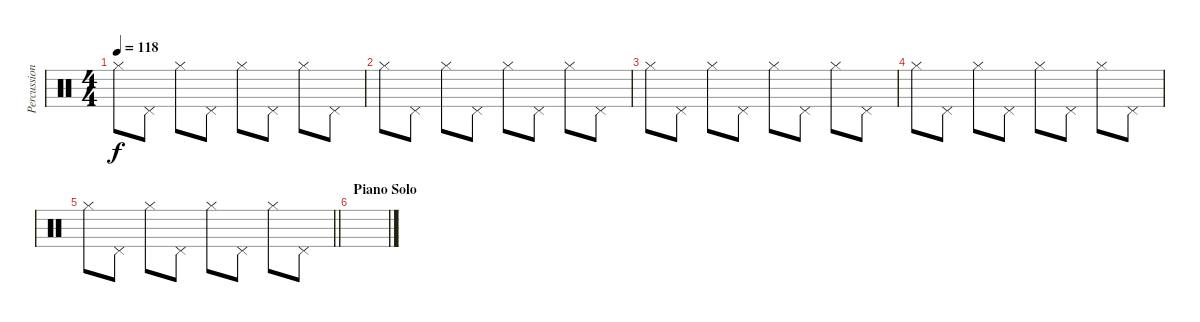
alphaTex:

\track ("Percussion (RSE)" "Percussion") {instrument percussion}
\staff {score}
\articulation defaults
\ts (4 4)
\tempo 118
\clef neutral
\ks c "Hi-Hat (closed)".8{dy f} "Pedal Hi-Hat (hit)".8 "Hi-Hat (closed)".8 "Pedal Hi-Hat (hit)".8 "Hi-Hat (closed)".8 "Pedal Hi-Hat (hit)".8 "Hi-Hat (closed)".8 "Pedal Hi-Hat (hit)".8
|
"Hi-Hat (closed)".8 "Pedal Hi-Hat (hit)".8 "Hi-Hat (closed)".8 "Pedal Hi-Hat (hit)".8 "Hi-Hat (closed)".8 "Pedal Hi-Hat (hit)".8 "Hi-Hat (closed)".8 "Pedal Hi-Hat (hit)".8 |
"Hi-Hat (closed)".8 "Pedal Hi-Hat (hit)".8 "Hi-Hat (closed)".8 "Pedal Hi-Hat (hit)".8 "Hi-Hat (closed)".8 "Pedal Hi-Hat (hit)".8 "Hi-Hat (closed)".8 "Pedal Hi-Hat (hit)".8 |
"Hi-Hat (closed)".8 "Pedal Hi-Hat (hit)".8 "Hi-Hat (closed)".8 "Pedal Hi-Hat (hit)".8 "Hi-Hat (closed)".8 "Pedal Hi-Hat (hit)".8 "Hi-Hat (closed)".8 "Pedal Hi-Hat (hit)".8 |
\barLineRight lightlight "Hi-Hat (closed)".8 "Pedal Hi-Hat (hit)".8 "Hi-Hat (closed)".8 "Pedal Hi-Hat (hit)".8 "Hi-Hat (closed)".8 "Pedal Hi-Hat (hit)".8 "Hi-Hat (closed)".8 "Pedal Hi-Hat (hit)".8
|
\section ("" "Piano Solo")
